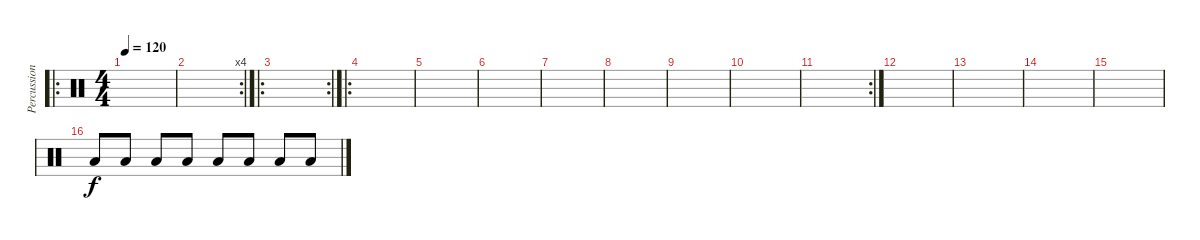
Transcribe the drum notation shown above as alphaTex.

\track ("Percussion" "Percussion") {instrument percussion}
\staff {score}
\articulation defaults
\ro
\ts (4 4)
\tempo 120
\clef neutral
\ks c
|
\rc 4
|
\ro
\rc 2
|
\ro
|
|
|
|
|
|
|
\rc 2
|
|
|
|
|
"Low Tom (hit)".8 "Low Tom (hit)".8 "Low Tom (hit)".8 "Low Tom (hit)".8 "Low Tom (hit)".8 "Low Tom (hit)".8 "Low Tom (hit)".8 "Low Tom (hit)".8
